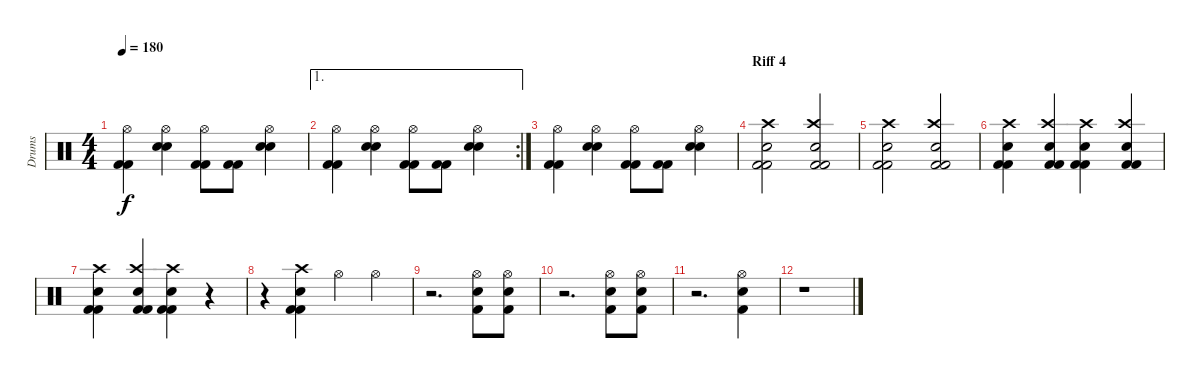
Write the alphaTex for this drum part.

\track ("Drums" "Drums") {instrument percussion}
\staff {score}
\articulation defaults
\ts (4 4)
\tempo 180
\clef neutral
\ks c
("Hi-Hat (open)" "Kick (hit) 2" "Kick (hit) 2").4{dy f} ("Hi-Hat (open)" "Snare (hit) 2" "Snare (hit) 2").4 ("Hi-Hat (open)" "Kick (hit) 2" "Kick (hit) 2").8 ("Kick (hit) 2" "Kick (hit) 2").8 ("Hi-Hat (open)" "Snare (hit) 2" "Snare (hit) 2").4 |
\ae 1
\rc 2
("Hi-Hat (open)" "Kick (hit) 2" "Kick (hit) 2").4 ("Hi-Hat (open)" "Snare (hit) 2" "Snare (hit) 2").4 ("Hi-Hat (open)" "Kick (hit) 2" "Kick (hit) 2").8 ("Kick (hit) 2" "Kick (hit) 2").8 ("Hi-Hat (open)" "Snare (hit) 2" "Snare (hit) 2").4 |
("Hi-Hat (open)" "Kick (hit) 2" "Kick (hit) 2").4 ("Hi-Hat (open)" "Snare (hit) 2" "Snare (hit) 2").4 ("Hi-Hat (open)" "Kick (hit) 2" "Kick (hit) 2").8 ("Kick (hit) 2" "Kick (hit) 2").8 ("Hi-Hat (open)" "Snare (hit) 2" "Snare (hit) 2").4 |
\section ("" "Riff 4")
("Crash high (hit)" "Snare (hit) 2" "Kick (hit) 2" "Kick (hit) 2").2 ("Crash high (hit)" "Electric Snare (hit)" "Kick (hit) 2" "Kick (hit) 2").2 |
("Crash high (hit)" "Snare (hit) 2" "Kick (hit) 2" "Kick (hit) 2").2 ("Crash high (hit)" "Electric Snare (hit)" "Kick (hit) 2" "Kick (hit) 2").2 |
("Crash high (hit)" "Snare (hit) 2" "Kick (hit) 2" "Kick (hit) 2").4 ("Crash high (hit)" "Electric Snare (hit)" "Kick (hit) 2" "Kick (hit) 2").4 ("Crash high (hit)" "Snare (hit) 2" "Kick (hit) 2" "Kick (hit) 2").4 ("Crash high (hit)" "Electric Snare (hit)" "Kick (hit) 2" "Kick (hit) 2").4 |
("Crash high (hit)" "Snare (hit) 2" "Kick (hit) 2" "Kick (hit) 2").4 ("Crash high (hit)" "Electric Snare (hit)" "Kick (hit) 2" "Kick (hit) 2").4 ("Crash high (hit)" "Snare (hit) 2" "Kick (hit) 2" "Kick (hit) 2").4 r.4 |
r.4 ("Crash high (hit)" "Snare (hit) 2" "Kick (hit) 2" "Kick (hit) 2").4 "Hi-Hat (open)".4 "Hi-Hat (open)".4 |
r.2{d} ("Hi-Hat (open)" "Snare (hit) 2" "Kick (hit) 2").8 ("Hi-Hat (open)" "Snare (hit) 2" "Kick (hit) 2").8 |
r.2{d} ("Hi-Hat (open)" "Snare (hit) 2" "Kick (hit) 2").8 ("Hi-Hat (open)" "Snare (hit) 2" "Kick (hit) 2").8 |
r.2{d} ("Hi-Hat (open)" "Snare (hit) 2" "Kick (hit) 2").4 |
r.1
